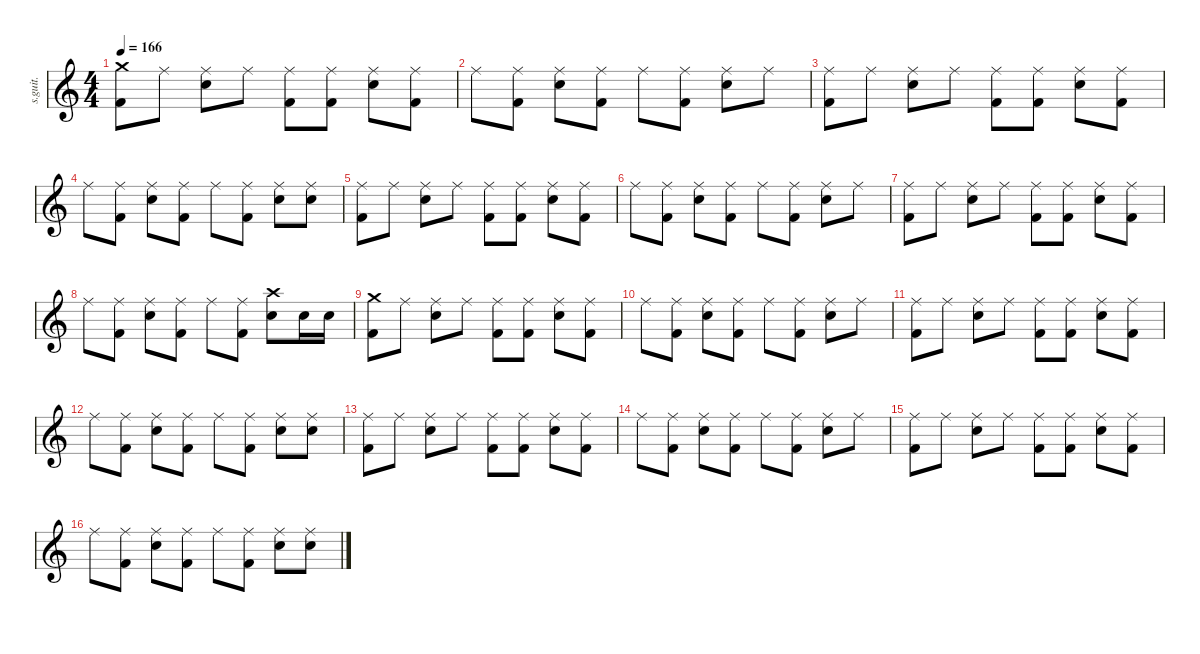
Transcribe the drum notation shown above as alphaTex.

\defaultSystemsLayout 4
\hideDynamics
\bracketExtendMode nobrackets
\track ("Phil Selway" "s.guit.") {instrument percussion}
\staff {score}
\articulation defaults
\ts (4 4)
\tempo 166
\clef g2
\ks c
("Crash medium (hit)" "Kick (hit) 2").8{lyrics (0 "") lyrics (1 "") lyrics (2 "") lyrics (3 "") lyrics (4 "") dy f} "Ride (middle)".8{lyrics (0 "") lyrics (1 "") lyrics (2 "") lyrics (3 "") lyrics (4 "")} ("Ride (middle)" "Electric Snare (hit)").8{lyrics (0 "") lyrics (1 "") lyrics (2 "") lyrics (3 "") lyrics (4 "")} "Ride (middle)".8{lyrics (0 "") lyrics (1 "") lyrics (2 "") lyrics (3 "") lyrics (4 "")} ("Ride (middle)" "Kick (hit) 2").8{lyrics (0 "") lyrics (1 "") lyrics (2 "") lyrics (3 "") lyrics (4 "")} ("Ride (middle)" "Kick (hit) 2").8{lyrics (0 "") lyrics (1 "") lyrics (2 "") lyrics (3 "") lyrics (4 "")} ("Ride (middle)" "Electric Snare (hit)").8{lyrics (0 "") lyrics (1 "") lyrics (2 "") lyrics (3 "") lyrics (4 "")} ("Ride (middle)" "Kick (hit) 2").8{lyrics (0 "") lyrics (1 "") lyrics (2 "") lyrics (3 "") lyrics (4 "")} |
"Ride (middle)".8{lyrics (0 "") lyrics (1 "") lyrics (2 "") lyrics (3 "") lyrics (4 "")} ("Ride (middle)" "Kick (hit) 2").8{lyrics (0 "") lyrics (1 "") lyrics (2 "") lyrics (3 "") lyrics (4 "")} ("Ride (middle)" "Electric Snare (hit)").8{lyrics (0 "") lyrics (1 "") lyrics (2 "") lyrics (3 "") lyrics (4 "")} ("Ride (middle)" "Kick (hit) 2").8{lyrics (0 "") lyrics (1 "") lyrics (2 "") lyrics (3 "") lyrics (4 "")} "Ride (middle)".8{lyrics (0 "") lyrics (1 "") lyrics (2 "") lyrics (3 "") lyrics (4 "")} ("Ride (middle)" "Kick (hit) 2").8{lyrics (0 "") lyrics (1 "") lyrics (2 "") lyrics (3 "") lyrics (4 "")} ("Ride (middle)" "Electric Snare (hit)").8{lyrics (0 "") lyrics (1 "") lyrics (2 "") lyrics (3 "") lyrics (4 "")} "Ride (middle)".8{lyrics (0 "") lyrics (1 "") lyrics (2 "") lyrics (3 "") lyrics (4 "")} |
("Ride (middle)" "Kick (hit) 2").8{lyrics (0 "") lyrics (1 "") lyrics (2 "") lyrics (3 "") lyrics (4 "")} "Ride (middle)".8{lyrics (0 "") lyrics (1 "") lyrics (2 "") lyrics (3 "") lyrics (4 "")} ("Ride (middle)" "Electric Snare (hit)").8{lyrics (0 "") lyrics (1 "") lyrics (2 "") lyrics (3 "") lyrics (4 "")} "Ride (middle)".8{lyrics (0 "") lyrics (1 "") lyrics (2 "") lyrics (3 "") lyrics (4 "")} ("Ride (middle)" "Kick (hit) 2").8{lyrics (0 "") lyrics (1 "") lyrics (2 "") lyrics (3 "") lyrics (4 "")} ("Ride (middle)" "Kick (hit) 2").8{lyrics (0 "") lyrics (1 "") lyrics (2 "") lyrics (3 "") lyrics (4 "")} ("Ride (middle)" "Electric Snare (hit)").8{lyrics (0 "") lyrics (1 "") lyrics (2 "") lyrics (3 "") lyrics (4 "")} ("Ride (middle)" "Kick (hit) 2").8{lyrics (0 "") lyrics (1 "") lyrics (2 "") lyrics (3 "") lyrics (4 "")} |
"Ride (middle)".8{lyrics (0 "") lyrics (1 "") lyrics (2 "") lyrics (3 "") lyrics (4 "")} ("Ride (middle)" "Kick (hit) 2").8{lyrics (0 "") lyrics (1 "") lyrics (2 "") lyrics (3 "") lyrics (4 "")} ("Ride (middle)" "Electric Snare (hit)").8{lyrics (0 "") lyrics (1 "") lyrics (2 "") lyrics (3 "") lyrics (4 "")} ("Ride (middle)" "Kick (hit) 2").8{lyrics (0 "") lyrics (1 "") lyrics (2 "") lyrics (3 "") lyrics (4 "")} "Ride (middle)".8{lyrics (0 "") lyrics (1 "") lyrics (2 "") lyrics (3 "") lyrics (4 "")} ("Ride (middle)" "Kick (hit) 2").8{lyrics (0 "") lyrics (1 "") lyrics (2 "") lyrics (3 "") lyrics (4 "")} ("Ride (middle)" "Electric Snare (hit)").8{lyrics (0 "") lyrics (1 "") lyrics (2 "") lyrics (3 "") lyrics (4 "")} ("Ride (middle)" "Electric Snare (hit)").8{lyrics (0 "") lyrics (1 "") lyrics (2 "") lyrics (3 "") lyrics (4 "")} |
("Ride (middle)" "Kick (hit) 2").8{lyrics (0 "") lyrics (1 "") lyrics (2 "") lyrics (3 "") lyrics (4 "")} "Ride (middle)".8{lyrics (0 "") lyrics (1 "") lyrics (2 "") lyrics (3 "") lyrics (4 "")} ("Ride (middle)" "Electric Snare (hit)").8{lyrics (0 "") lyrics (1 "") lyrics (2 "") lyrics (3 "") lyrics (4 "")} "Ride (middle)".8{lyrics (0 "") lyrics (1 "") lyrics (2 "") lyrics (3 "") lyrics (4 "")} ("Ride (middle)" "Kick (hit) 2").8{lyrics (0 "") lyrics (1 "") lyrics (2 "") lyrics (3 "") lyrics (4 "")} ("Ride (middle)" "Kick (hit) 2").8{lyrics (0 "") lyrics (1 "") lyrics (2 "") lyrics (3 "") lyrics (4 "")} ("Ride (middle)" "Electric Snare (hit)").8{lyrics (0 "") lyrics (1 "") lyrics (2 "") lyrics (3 "") lyrics (4 "")} ("Ride (middle)" "Kick (hit) 2").8{lyrics (0 "") lyrics (1 "") lyrics (2 "") lyrics (3 "") lyrics (4 "")} |
"Ride (middle)".8{lyrics (0 "") lyrics (1 "") lyrics (2 "") lyrics (3 "") lyrics (4 "")} ("Ride (middle)" "Kick (hit) 2").8{lyrics (0 "") lyrics (1 "") lyrics (2 "") lyrics (3 "") lyrics (4 "")} ("Ride (middle)" "Electric Snare (hit)").8{lyrics (0 "") lyrics (1 "") lyrics (2 "") lyrics (3 "") lyrics (4 "")} ("Ride (middle)" "Kick (hit) 2").8{lyrics (0 "") lyrics (1 "") lyrics (2 "") lyrics (3 "") lyrics (4 "")} "Ride (middle)".8{lyrics (0 "") lyrics (1 "") lyrics (2 "") lyrics (3 "") lyrics (4 "")} ("Ride (middle)" "Kick (hit) 2").8{lyrics (0 "") lyrics (1 "") lyrics (2 "") lyrics (3 "") lyrics (4 "")} ("Ride (middle)" "Electric Snare (hit)").8{lyrics (0 "") lyrics (1 "") lyrics (2 "") lyrics (3 "") lyrics (4 "")} "Ride (middle)".8{lyrics (0 "") lyrics (1 "") lyrics (2 "") lyrics (3 "") lyrics (4 "")} |
("Ride (middle)" "Kick (hit) 2").8{lyrics (0 "") lyrics (1 "") lyrics (2 "") lyrics (3 "") lyrics (4 "")} "Ride (middle)".8{lyrics (0 "") lyrics (1 "") lyrics (2 "") lyrics (3 "") lyrics (4 "")} ("Ride (middle)" "Electric Snare (hit)").8{lyrics (0 "") lyrics (1 "") lyrics (2 "") lyrics (3 "") lyrics (4 "")} "Ride (middle)".8{lyrics (0 "") lyrics (1 "") lyrics (2 "") lyrics (3 "") lyrics (4 "")} ("Ride (middle)" "Kick (hit) 2").8{lyrics (0 "") lyrics (1 "") lyrics (2 "") lyrics (3 "") lyrics (4 "")} ("Ride (middle)" "Kick (hit) 2").8{lyrics (0 "") lyrics (1 "") lyrics (2 "") lyrics (3 "") lyrics (4 "")} ("Ride (middle)" "Electric Snare (hit)").8{lyrics (0 "") lyrics (1 "") lyrics (2 "") lyrics (3 "") lyrics (4 "")} ("Ride (middle)" "Kick (hit) 2").8{lyrics (0 "") lyrics (1 "") lyrics (2 "") lyrics (3 "") lyrics (4 "")} |
"Ride (middle)".8{lyrics (0 "") lyrics (1 "") lyrics (2 "") lyrics (3 "") lyrics (4 "")} ("Ride (middle)" "Kick (hit) 2").8{lyrics (0 "") lyrics (1 "") lyrics (2 "") lyrics (3 "") lyrics (4 "")} ("Ride (middle)" "Electric Snare (hit)").8{lyrics (0 "") lyrics (1 "") lyrics (2 "") lyrics (3 "") lyrics (4 "")} ("Ride (middle)" "Kick (hit) 2").8{lyrics (0 "") lyrics (1 "") lyrics (2 "") lyrics (3 "") lyrics (4 "")} "Ride (middle)".8{lyrics (0 "") lyrics (1 "") lyrics (2 "") lyrics (3 "") lyrics (4 "")} ("Ride (middle)" "Kick (hit) 2").8{lyrics (0 "") lyrics (1 "") lyrics (2 "") lyrics (3 "") lyrics (4 "")} ("Crash high (hit)" "Electric Snare (hit)").8{lyrics (0 "") lyrics (1 "") lyrics (2 "") lyrics (3 "") lyrics (4 "")} "Snare (hit) 2".16{lyrics (0 "") lyrics (1 "") lyrics (2 "") lyrics (3 "") lyrics (4 "") dy mf} "Snare (hit) 2".16{lyrics (0 "") lyrics (1 "") lyrics (2 "") lyrics (3 "") lyrics (4 "")} |
("Crash medium (hit)" "Kick (hit) 2").8{lyrics (0 "") lyrics (1 "") lyrics (2 "") lyrics (3 "") lyrics (4 "") dy f} "Ride (middle)".8{lyrics (0 "") lyrics (1 "") lyrics (2 "") lyrics (3 "") lyrics (4 "")} ("Ride (middle)" "Electric Snare (hit)").8{lyrics (0 "") lyrics (1 "") lyrics (2 "") lyrics (3 "") lyrics (4 "")} "Ride (middle)".8{lyrics (0 "") lyrics (1 "") lyrics (2 "") lyrics (3 "") lyrics (4 "")} ("Ride (middle)" "Kick (hit) 2").8{lyrics (0 "") lyrics (1 "") lyrics (2 "") lyrics (3 "") lyrics (4 "")} ("Ride (middle)" "Kick (hit) 2").8{lyrics (0 "") lyrics (1 "") lyrics (2 "") lyrics (3 "") lyrics (4 "")} ("Ride (middle)" "Electric Snare (hit)").8{lyrics (0 "") lyrics (1 "") lyrics (2 "") lyrics (3 "") lyrics (4 "")} ("Ride (middle)" "Kick (hit) 2").8{lyrics (0 "") lyrics (1 "") lyrics (2 "") lyrics (3 "") lyrics (4 "")} |
"Ride (middle)".8{lyrics (0 "") lyrics (1 "") lyrics (2 "") lyrics (3 "") lyrics (4 "")} ("Ride (middle)" "Kick (hit) 2").8{lyrics (0 "") lyrics (1 "") lyrics (2 "") lyrics (3 "") lyrics (4 "")} ("Ride (middle)" "Electric Snare (hit)").8{lyrics (0 "") lyrics (1 "") lyrics (2 "") lyrics (3 "") lyrics (4 "")} ("Ride (middle)" "Kick (hit) 2").8{lyrics (0 "") lyrics (1 "") lyrics (2 "") lyrics (3 "") lyrics (4 "")} "Ride (middle)".8{lyrics (0 "") lyrics (1 "") lyrics (2 "") lyrics (3 "") lyrics (4 "")} ("Ride (middle)" "Kick (hit) 2").8{lyrics (0 "") lyrics (1 "") lyrics (2 "") lyrics (3 "") lyrics (4 "")} ("Ride (middle)" "Electric Snare (hit)").8{lyrics (0 "") lyrics (1 "") lyrics (2 "") lyrics (3 "") lyrics (4 "")} "Ride (middle)".8{lyrics (0 "") lyrics (1 "") lyrics (2 "") lyrics (3 "") lyrics (4 "")} |
("Ride (middle)" "Kick (hit) 2").8{lyrics (0 "") lyrics (1 "") lyrics (2 "") lyrics (3 "") lyrics (4 "")} "Ride (middle)".8{lyrics (0 "") lyrics (1 "") lyrics (2 "") lyrics (3 "") lyrics (4 "")} ("Ride (middle)" "Electric Snare (hit)").8{lyrics (0 "") lyrics (1 "") lyrics (2 "") lyrics (3 "") lyrics (4 "")} "Ride (middle)".8{lyrics (0 "") lyrics (1 "") lyrics (2 "") lyrics (3 "") lyrics (4 "")} ("Ride (middle)" "Kick (hit) 2").8{lyrics (0 "") lyrics (1 "") lyrics (2 "") lyrics (3 "") lyrics (4 "")} ("Ride (middle)" "Kick (hit) 2").8{lyrics (0 "") lyrics (1 "") lyrics (2 "") lyrics (3 "") lyrics (4 "")} ("Ride (middle)" "Electric Snare (hit)").8{lyrics (0 "") lyrics (1 "") lyrics (2 "") lyrics (3 "") lyrics (4 "")} ("Ride (middle)" "Kick (hit) 2").8{lyrics (0 "") lyrics (1 "") lyrics (2 "") lyrics (3 "") lyrics (4 "")} |
"Ride (middle)".8{lyrics (0 "") lyrics (1 "") lyrics (2 "") lyrics (3 "") lyrics (4 "")} ("Ride (middle)" "Kick (hit) 2").8{lyrics (0 "") lyrics (1 "") lyrics (2 "") lyrics (3 "") lyrics (4 "")} ("Ride (middle)" "Electric Snare (hit)").8{lyrics (0 "") lyrics (1 "") lyrics (2 "") lyrics (3 "") lyrics (4 "")} ("Ride (middle)" "Kick (hit) 2").8{lyrics (0 "") lyrics (1 "") lyrics (2 "") lyrics (3 "") lyrics (4 "")} "Ride (middle)".8{lyrics (0 "") lyrics (1 "") lyrics (2 "") lyrics (3 "") lyrics (4 "")} ("Ride (middle)" "Kick (hit) 2").8{lyrics (0 "") lyrics (1 "") lyrics (2 "") lyrics (3 "") lyrics (4 "")} ("Ride (middle)" "Electric Snare (hit)").8{lyrics (0 "") lyrics (1 "") lyrics (2 "") lyrics (3 "") lyrics (4 "")} ("Ride (middle)" "Electric Snare (hit)").8{lyrics (0 "") lyrics (1 "") lyrics (2 "") lyrics (3 "") lyrics (4 "")} |
("Ride (middle)" "Kick (hit) 2").8{lyrics (0 "") lyrics (1 "") lyrics (2 "") lyrics (3 "") lyrics (4 "")} "Ride (middle)".8{lyrics (0 "") lyrics (1 "") lyrics (2 "") lyrics (3 "") lyrics (4 "")} ("Ride (middle)" "Electric Snare (hit)").8{lyrics (0 "") lyrics (1 "") lyrics (2 "") lyrics (3 "") lyrics (4 "")} "Ride (middle)".8{lyrics (0 "") lyrics (1 "") lyrics (2 "") lyrics (3 "") lyrics (4 "")} ("Ride (middle)" "Kick (hit) 2").8{lyrics (0 "") lyrics (1 "") lyrics (2 "") lyrics (3 "") lyrics (4 "")} ("Ride (middle)" "Kick (hit) 2").8{lyrics (0 "") lyrics (1 "") lyrics (2 "") lyrics (3 "") lyrics (4 "")} ("Ride (middle)" "Electric Snare (hit)").8{lyrics (0 "") lyrics (1 "") lyrics (2 "") lyrics (3 "") lyrics (4 "")} ("Ride (middle)" "Kick (hit) 2").8{lyrics (0 "") lyrics (1 "") lyrics (2 "") lyrics (3 "") lyrics (4 "")} |
"Ride (middle)".8{lyrics (0 "") lyrics (1 "") lyrics (2 "") lyrics (3 "") lyrics (4 "")} ("Ride (middle)" "Kick (hit) 2").8{lyrics (0 "") lyrics (1 "") lyrics (2 "") lyrics (3 "") lyrics (4 "")} ("Ride (middle)" "Electric Snare (hit)").8{lyrics (0 "") lyrics (1 "") lyrics (2 "") lyrics (3 "") lyrics (4 "")} ("Ride (middle)" "Kick (hit) 2").8{lyrics (0 "") lyrics (1 "") lyrics (2 "") lyrics (3 "") lyrics (4 "")} "Ride (middle)".8{lyrics (0 "") lyrics (1 "") lyrics (2 "") lyrics (3 "") lyrics (4 "")} ("Ride (middle)" "Kick (hit) 2").8{lyrics (0 "") lyrics (1 "") lyrics (2 "") lyrics (3 "") lyrics (4 "")} ("Ride (middle)" "Electric Snare (hit)").8{lyrics (0 "") lyrics (1 "") lyrics (2 "") lyrics (3 "") lyrics (4 "")} "Ride (middle)".8{lyrics (0 "") lyrics (1 "") lyrics (2 "") lyrics (3 "") lyrics (4 "")} |
("Ride (middle)" "Kick (hit) 2").8{lyrics (0 "") lyrics (1 "") lyrics (2 "") lyrics (3 "") lyrics (4 "")} "Ride (middle)".8{lyrics (0 "") lyrics (1 "") lyrics (2 "") lyrics (3 "") lyrics (4 "")} ("Ride (middle)" "Electric Snare (hit)").8{lyrics (0 "") lyrics (1 "") lyrics (2 "") lyrics (3 "") lyrics (4 "")} "Ride (middle)".8{lyrics (0 "") lyrics (1 "") lyrics (2 "") lyrics (3 "") lyrics (4 "")} ("Ride (middle)" "Kick (hit) 2").8{lyrics (0 "") lyrics (1 "") lyrics (2 "") lyrics (3 "") lyrics (4 "")} ("Ride (middle)" "Kick (hit) 2").8{lyrics (0 "") lyrics (1 "") lyrics (2 "") lyrics (3 "") lyrics (4 "")} ("Ride (middle)" "Electric Snare (hit)").8{lyrics (0 "") lyrics (1 "") lyrics (2 "") lyrics (3 "") lyrics (4 "")} ("Ride (middle)" "Kick (hit) 2").8{lyrics (0 "") lyrics (1 "") lyrics (2 "") lyrics (3 "") lyrics (4 "")} |
"Ride (middle)".8{lyrics (0 "") lyrics (1 "") lyrics (2 "") lyrics (3 "") lyrics (4 "")} ("Ride (middle)" "Kick (hit) 2").8{lyrics (0 "") lyrics (1 "") lyrics (2 "") lyrics (3 "") lyrics (4 "")} ("Ride (middle)" "Electric Snare (hit)").8{lyrics (0 "") lyrics (1 "") lyrics (2 "") lyrics (3 "") lyrics (4 "")} ("Ride (middle)" "Kick (hit) 2").8{lyrics (0 "") lyrics (1 "") lyrics (2 "") lyrics (3 "") lyrics (4 "")} "Ride (middle)".8{lyrics (0 "") lyrics (1 "") lyrics (2 "") lyrics (3 "") lyrics (4 "")} ("Ride (middle)" "Kick (hit) 2").8{lyrics (0 "") lyrics (1 "") lyrics (2 "") lyrics (3 "") lyrics (4 "")} ("Ride (middle)" "Electric Snare (hit)").8{lyrics (0 "") lyrics (1 "") lyrics (2 "") lyrics (3 "") lyrics (4 "")} ("Ride (middle)" "Electric Snare (hit)").8{lyrics (0 "") lyrics (1 "") lyrics (2 "") lyrics (3 "") lyrics (4 "")}
